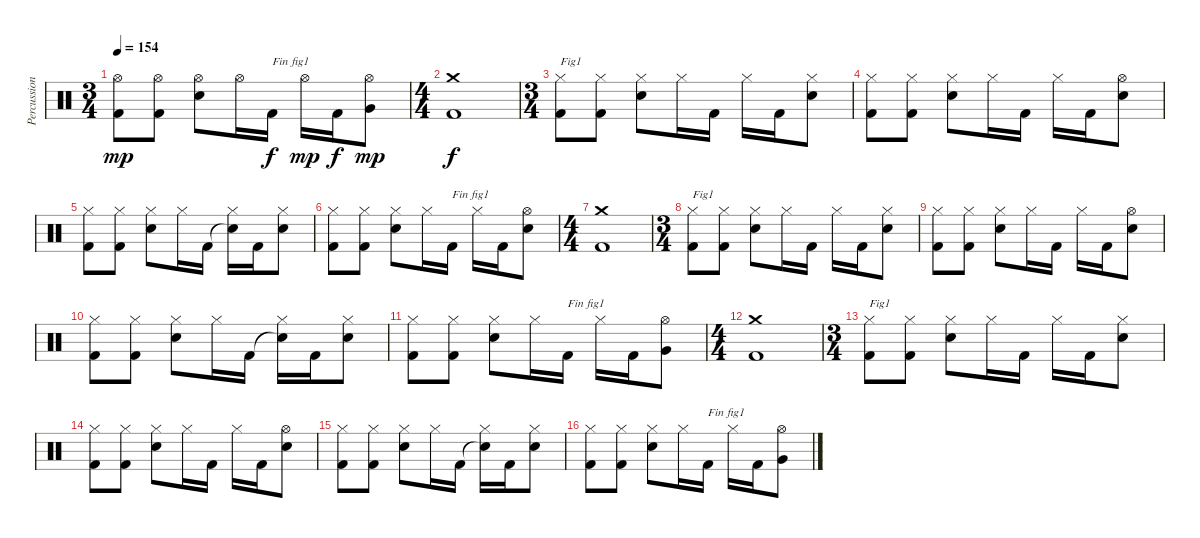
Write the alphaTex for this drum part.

\track ("Percussions" "Percussion") {instrument percussion}
\staff {score}
\articulation defaults
\ts (3 4)
\tempo 154
\clef neutral
\ks c
("Kick (hit) 2" "Hi-Hat (open)").8{dy mp} ("Kick (hit) 2" "Hi-Hat (open)").8 ("Electric Snare (hit)" "Hi-Hat (open)").8 "Hi-Hat (open)".16 "Kick (hit) 2".16{txt "Fin fig1" dy f} "Hi-Hat (open)".16{dy mp} "Kick (hit) 2".16{dy f} ("Very Low Tom (hit)" "Hi-Hat (open)").8{dy mp} |
\ts (4 4)
("Kick (hit) 2" "Crash medium (hit)").1{dy f} |
\ts (3 4)
("Kick (hit) 2" "Hi-Hat (closed)").8{txt "Fig1"} ("Kick (hit) 2" "Hi-Hat (closed)").8 ("Electric Snare (hit)" "Hi-Hat (closed)").8 "Hi-Hat (closed)".16 "Kick (hit) 2".16 "Hi-Hat (closed)".16 "Kick (hit) 2".16 ("Electric Snare (hit)" "Hi-Hat (closed)").8 |
("Kick (hit) 2" "Hi-Hat (closed)").8 ("Kick (hit) 2" "Hi-Hat (closed)").8 ("Electric Snare (hit)" "Hi-Hat (closed)").8 "Hi-Hat (closed)".16 "Kick (hit) 2".16 "Hi-Hat (closed)".16 "Kick (hit) 2".16 ("Electric Snare (hit)" "Hi-Hat (open)").8 |
("Kick (hit) 2" "Hi-Hat (closed)").8 ("Kick (hit) 2" "Hi-Hat (closed)").8 ("Electric Snare (hit)" "Hi-Hat (closed)").8 "Hi-Hat (closed)".16 "Kick (hit) 2".16 ("Snare (hit)"{t} "Hi-Hat (closed)").16 "Kick (hit) 2".16 ("Electric Snare (hit)" "Hi-Hat (closed)").8 |
("Kick (hit) 2" "Hi-Hat (closed)").8 ("Kick (hit) 2" "Hi-Hat (closed)").8 ("Electric Snare (hit)" "Hi-Hat (closed)").8 "Hi-Hat (closed)".16 "Kick (hit) 2".16{txt "Fin fig1"} "Hi-Hat (closed)".16 "Kick (hit) 2".16 ("Electric Snare (hit)" "Hi-Hat (open)").8 |
\ts (4 4)
("Kick (hit) 2" "Crash medium (hit)").1 |
\ts (3 4)
("Kick (hit) 2" "Hi-Hat (closed)").8{txt "Fig1"} ("Kick (hit) 2" "Hi-Hat (closed)").8 ("Electric Snare (hit)" "Hi-Hat (closed)").8 "Hi-Hat (closed)".16 "Kick (hit) 2".16 "Hi-Hat (closed)".16 "Kick (hit) 2".16 ("Electric Snare (hit)" "Hi-Hat (closed)").8 |
("Kick (hit) 2" "Hi-Hat (closed)").8 ("Kick (hit) 2" "Hi-Hat (closed)").8 ("Electric Snare (hit)" "Hi-Hat (closed)").8 "Hi-Hat (closed)".16 "Kick (hit) 2".16 "Hi-Hat (closed)".16 "Kick (hit) 2".16 ("Electric Snare (hit)" "Hi-Hat (open)").8 |
("Kick (hit) 2" "Hi-Hat (closed)").8 ("Kick (hit) 2" "Hi-Hat (closed)").8 ("Electric Snare (hit)" "Hi-Hat (closed)").8 "Hi-Hat (closed)".16 "Kick (hit) 2".16 ("Snare (hit)"{t} "Hi-Hat (closed)").16 "Kick (hit) 2".16 ("Electric Snare (hit)" "Hi-Hat (closed)").8 |
("Kick (hit) 2" "Hi-Hat (closed)").8 ("Kick (hit) 2" "Hi-Hat (closed)").8 ("Electric Snare (hit)" "Hi-Hat (closed)").8 "Hi-Hat (closed)".16 "Kick (hit) 2".16{txt "Fin fig1"} "Hi-Hat (closed)".16 "Kick (hit) 2".16 ("Very Low Tom (hit)" "Hi-Hat (open)").8 |
\ts (4 4)
("Kick (hit) 2" "Crash medium (hit)").1 |
\ts (3 4)
("Kick (hit) 2" "Hi-Hat (closed)").8{txt "Fig1"} ("Kick (hit) 2" "Hi-Hat (closed)").8 ("Electric Snare (hit)" "Hi-Hat (closed)").8 "Hi-Hat (closed)".16 "Kick (hit) 2".16 "Hi-Hat (closed)".16 "Kick (hit) 2".16 ("Electric Snare (hit)" "Hi-Hat (closed)").8 |
("Kick (hit) 2" "Hi-Hat (closed)").8 ("Kick (hit) 2" "Hi-Hat (closed)").8 ("Electric Snare (hit)" "Hi-Hat (closed)").8 "Hi-Hat (closed)".16 "Kick (hit) 2".16 "Hi-Hat (closed)".16 "Kick (hit) 2".16 ("Electric Snare (hit)" "Hi-Hat (open)").8 |
("Kick (hit) 2" "Hi-Hat (closed)").8 ("Kick (hit) 2" "Hi-Hat (closed)").8 ("Electric Snare (hit)" "Hi-Hat (closed)").8 "Hi-Hat (closed)".16 "Kick (hit) 2".16 ("Snare (hit)"{t} "Hi-Hat (closed)").16 "Kick (hit) 2".16 ("Electric Snare (hit)" "Hi-Hat (closed)").8 |
("Kick (hit) 2" "Hi-Hat (closed)").8 ("Kick (hit) 2" "Hi-Hat (closed)").8 ("Electric Snare (hit)" "Hi-Hat (closed)").8 "Hi-Hat (closed)".16 "Kick (hit) 2".16{txt "Fin fig1"} "Hi-Hat (closed)".16 "Kick (hit) 2".16 ("Very Low Tom (hit)" "Hi-Hat (open)").8
